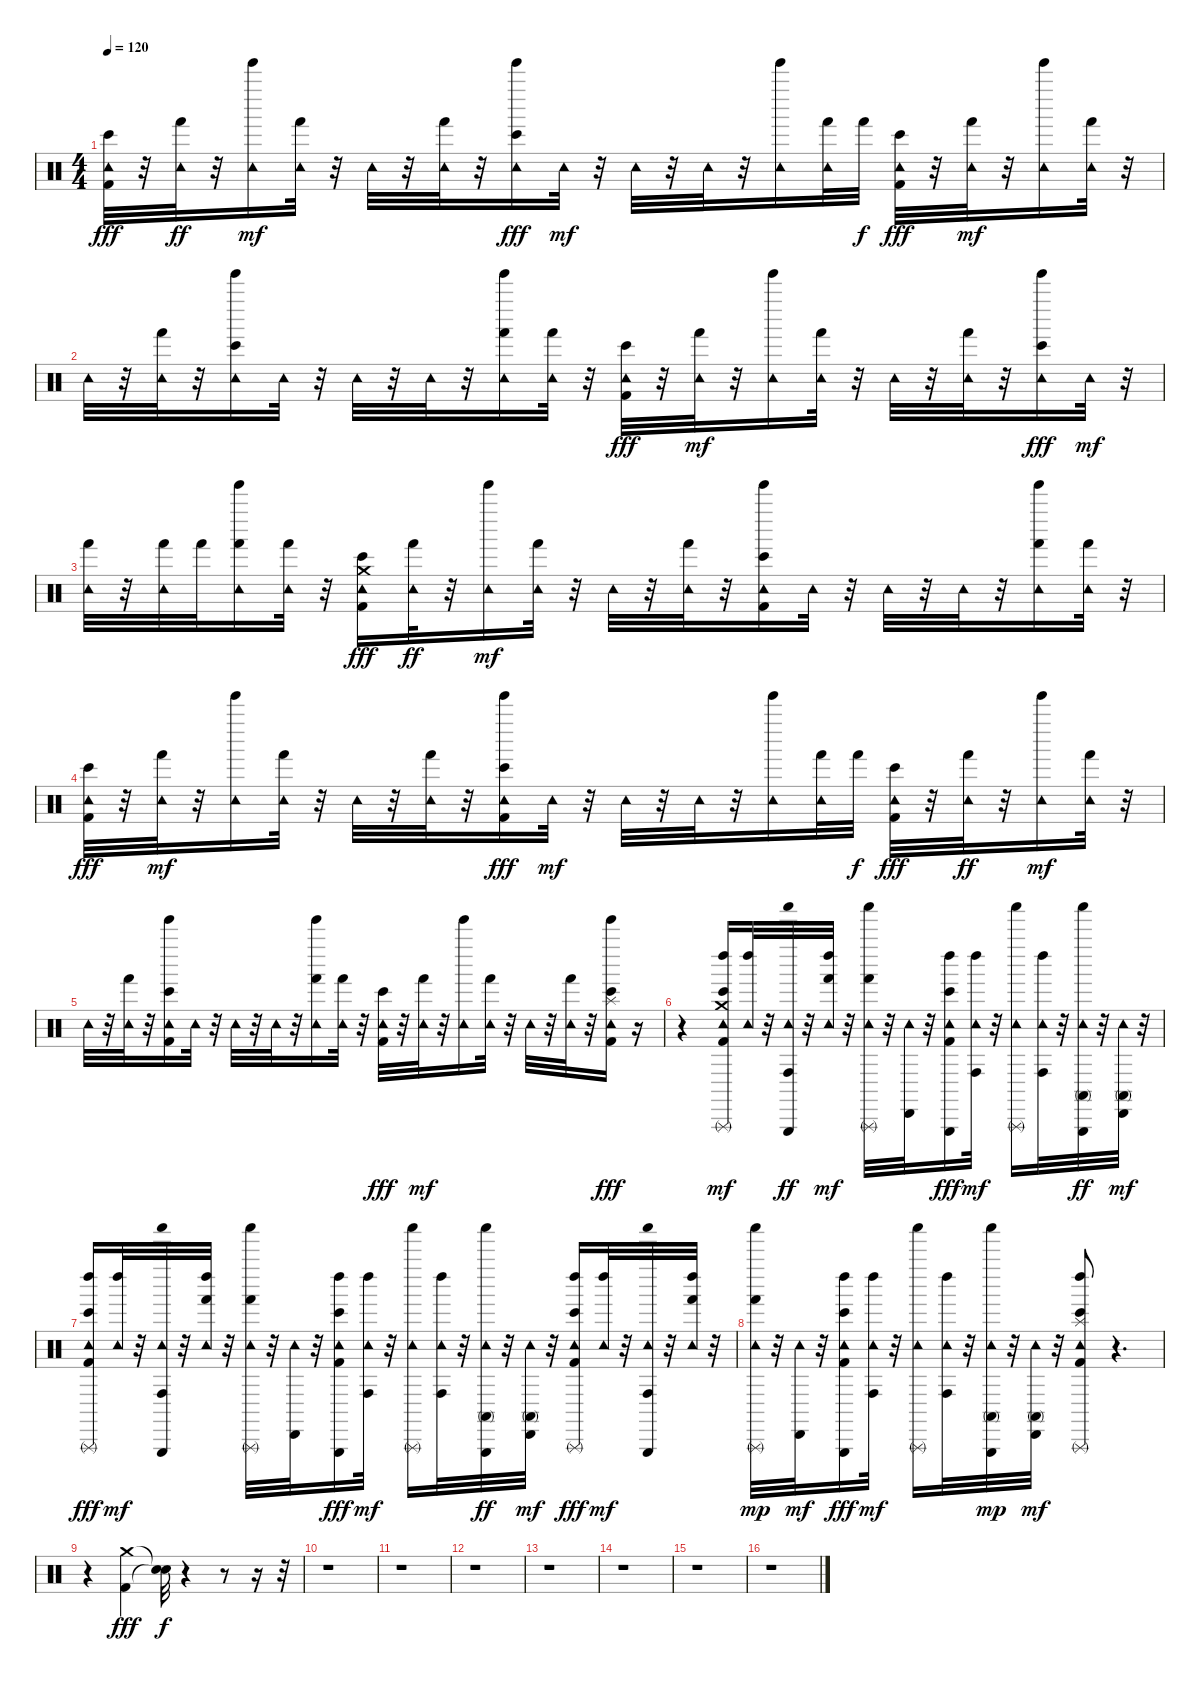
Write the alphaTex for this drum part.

\track "" {instrument percussion}
\staff {score}
\articulation defaults
\ts (4 4)
\tempo 120
\clef neutral
\ks c
("Tambourine (hit)" "Kick (hit) 2" "Bongo High (hit)").32{dy fff} r.32 ("Tambourine (hit)" "Hand (hit)").32{dy ff} r.32 ("Tinkle Bell (hit)" "Tambourine (hit)").16{dy mf} ("Tambourine (hit)" "Hand (hit)").32 r.32 "Tambourine (hit)".32 r.32 ("Tambourine (hit)" "Hand (hit)").32 r.32 ("Tinkle Bell (hit)" "Tambourine (hit)" "Bongo High (hit)").16{dy fff} "Tambourine (hit)".32{dy mf} r.32 "Tambourine (hit)".32 r.32 "Tambourine (hit)".32 r.32 ("Tinkle Bell (hit)" "Tambourine (hit)").16 ("Tambourine (hit)" "Hand (hit)").32 "Hand (hit)".32{dy f} ("Bongo High (hit)" "Kick (hit) 2" "Tambourine (hit)").32{dy fff} r.32 ("Hand (hit)" "Tambourine (hit)").32{dy mf} r.32 ("Tambourine (hit)" "Tinkle Bell (hit)").16 ("Hand (hit)" "Tambourine (hit)").32 r.32 |
"Tambourine (hit)".32 r.32 ("Hand (hit)" "Tambourine (hit)").32 r.32 ("Bongo High (hit)" "Tambourine (hit)" "Tinkle Bell (hit)").16 "Tambourine (hit)".32 r.32 "Tambourine (hit)".32 r.32 "Tambourine (hit)".32 r.32 ("Hand (hit)" "Tambourine (hit)" "Tinkle Bell (hit)").16 ("Hand (hit)" "Tambourine (hit)").32 r.32 ("Bongo High (hit)" "Kick (hit) 2" "Tambourine (hit)").32{dy fff} r.32 ("Hand (hit)" "Tambourine (hit)").32{dy mf} r.32 ("Tinkle Bell (hit)" "Tambourine (hit)").16 ("Hand (hit)" "Tambourine (hit)").32 r.32 "Tambourine (hit)".32 r.32 ("Hand (hit)" "Tambourine (hit)").32 r.32 ("Tinkle Bell (hit)" "Bongo High (hit)" "Tambourine (hit)").16{dy fff} "Tambourine (hit)".32{dy mf} r.32 |
("Hand (hit)" "Tambourine (hit)").32 r.32 ("Hand (hit)" "Tambourine (hit)").32 "Hand (hit)".32 ("Tinkle Bell (hit)" "Hand (hit)" "Tambourine (hit)").16 ("Hand (hit)" "Tambourine (hit)").32 r.32 ("Crash medium (hit)" "Kick (hit) 2" "Tambourine (hit)" "Bongo High (hit)").16{dy fff} ("Tambourine (hit)" "Hand (hit)").32{dy ff} r.32 ("Tambourine (hit)" "Tinkle Bell (hit)").16{dy mf} ("Tambourine (hit)" "Hand (hit)").32 r.32 "Tambourine (hit)".32 r.32 ("Tambourine (hit)" "Hand (hit)").32 r.32 ("Tambourine (hit)" "Bongo High (hit)" "Kick (hit) 2" "Tinkle Bell (hit)").16 "Tambourine (hit)".32 r.32 "Tambourine (hit)".32 r.32 "Tambourine (hit)".32 r.32 ("Tambourine (hit)" "Hand (hit)" "Tinkle Bell (hit)").16 ("Tambourine (hit)" "Hand (hit)").32 r.32 |
("Bongo High (hit)" "Tambourine (hit)" "Kick (hit) 2").32{dy fff} r.32 ("Hand (hit)" "Tambourine (hit)").32{dy mf} r.32 ("Tinkle Bell (hit)" "Tambourine (hit)").16 ("Hand (hit)" "Tambourine (hit)").32 r.32 "Tambourine (hit)".32 r.32 ("Hand (hit)" "Tambourine (hit)").32 r.32 ("Tinkle Bell (hit)" "Bongo High (hit)" "Kick (hit) 2" "Tambourine (hit)").16{dy fff} "Tambourine (hit)".32{dy mf} r.32 "Tambourine (hit)".32 r.32 "Tambourine (hit)".32 r.32 ("Tinkle Bell (hit)" "Tambourine (hit)").16 ("Hand (hit)" "Tambourine (hit)").32 "Hand (hit)".32{dy f} ("Kick (hit) 2" "Tambourine (hit)" "Bongo High (hit)").32{dy fff} r.32 ("Tambourine (hit)" "Hand (hit)").32{dy ff} r.32 ("Tambourine (hit)" "Tinkle Bell (hit)").16{dy mf} ("Tambourine (hit)" "Hand (hit)").32 r.32 |
"Tambourine (hit)".32 r.32 ("Tambourine (hit)" "Hand (hit)").32 r.32 ("Tambourine (hit)" "Bongo High (hit)" "Kick (hit) 2" "Tinkle Bell (hit)").16 "Tambourine (hit)".32 r.32 "Tambourine (hit)".32 r.32 "Tambourine (hit)".32 r.32 ("Tambourine (hit)" "Hand (hit)" "Tinkle Bell (hit)").16 ("Tambourine (hit)" "Hand (hit)").32 r.32 ("Bongo High (hit)" "Tambourine (hit)" "Kick (hit) 2").32{dy fff} r.32 ("Hand (hit)" "Tambourine (hit)").32{dy mf} r.32 ("Tinkle Bell (hit)" "Tambourine (hit)").16 ("Hand (hit)" "Tambourine (hit)").32 r.32 "Tambourine (hit)".32 r.32 ("Hand (hit)" "Tambourine (hit)").32 r.32 ("Tinkle Bell (hit)" "Splash (hit)" "Bongo High (hit)" "Kick (hit) 2" "Tambourine (hit)").16{dy fff} r.16 |
r.4 ("Kick (hit) 2" "Crash medium (hit)" "Bongo High (hit)" "Left Maraca (hit)" "Triangle (rnute)" "Tambourine (hit)").16{dy mf} ("Left Maraca (hit)" "Tambourine (hit)").32 r.32 ("Conga high (hit)" "Shaker (hit)" "Triangle (hit)" "Tambourine (hit)").32{dy ff} r.32 ("Hand (hit)" "Left Maraca (hit)" "Tambourine (hit)").32{dy mf} r.32 ("Hand (hit)" "Shaker (hit)" "Triangle (rnute)" "Tambourine (hit)").32 r.32 ("Cabasa (hit)" "Tambourine (hit)").32 r.32 ("Bongo High (hit)" "Left Maraca (hit)" "Triangle (hit)" "Tambourine (hit)" "Kick (hit) 2").16{dy fff} ("Conga high (hit)" "Left Maraca (hit)" "Tambourine (hit)").32{dy mf} r.32 ("Shaker (hit)" "Triangle (rnute)" "Tambourine (hit)").16 ("Conga high (hit)" "Left Maraca (hit)" "Tambourine (hit)").32 r.32 ("Conga high (mute)" "Shaker (hit)" "Triangle (hit)" "Tambourine (hit)").32{dy ff} r.32 ("Conga high (mute)" "Cabasa (hit)" "Tambourine (hit)").32{dy mf} r.32 |
("Triangle (rnute)" "Tambourine (hit)" "Kick (hit) 2" "Left Maraca (hit)" "Bongo High (hit)").16{dy fff} ("Tambourine (hit)" "Left Maraca (hit)").32{dy mf} r.32 ("Triangle (hit)" "Tambourine (hit)" "Shaker (hit)" "Conga high (hit)").32 r.32 ("Tambourine (hit)" "Left Maraca (hit)" "Hand (hit)").32 r.32 ("Triangle (rnute)" "Tambourine (hit)" "Shaker (hit)" "Hand (hit)").32 r.32 ("Tambourine (hit)" "Cabasa (hit)").32 r.32 ("Triangle (hit)" "Tambourine (hit)" "Left Maraca (hit)" "Bongo High (hit)" "Kick (hit) 2").16{dy fff} ("Tambourine (hit)" "Left Maraca (hit)" "Conga high (hit)").32{dy mf} r.32 ("Triangle (rnute)" "Tambourine (hit)" "Shaker (hit)").16 ("Tambourine (hit)" "Left Maraca (hit)" "Conga high (hit)").32 r.32 ("Triangle (hit)" "Tambourine (hit)" "Shaker (hit)" "Conga high (mute)").32{dy ff} r.32 ("Tambourine (hit)" "Cabasa (hit)" "Conga high (mute)").32{dy mf} r.32 ("Tambourine (hit)" "Bongo High (hit)" "Triangle (rnute)" "Kick (hit) 2" "Left Maraca (hit)").16{dy fff} ("Tambourine (hit)" "Left Maraca (hit)").32{dy mf} r.32 ("Tambourine (hit)" "Conga high (hit)" "Triangle (hit)" "Shaker (hit)").32 r.32 ("Tambourine (hit)" "Hand (hit)" "Left Maraca (hit)").32 r.32 |
("Tambourine (hit)" "Hand (hit)" "Triangle (rnute)" "Shaker (hit)").32{dy mp} r.32 ("Tambourine (hit)" "Cabasa (hit)").32{dy mf} r.32 ("Tambourine (hit)" "Bongo High (hit)" "Triangle (hit)" "Left Maraca (hit)" "Kick (hit) 2").16{dy fff} ("Tambourine (hit)" "Conga high (hit)" "Left Maraca (hit)").32{dy mf} r.32 ("Tambourine (hit)" "Triangle (rnute)" "Shaker (hit)").16 ("Tambourine (hit)" "Conga high (hit)" "Left Maraca (hit)").32 r.32 ("Tambourine (hit)" "Conga high (mute)" "Triangle (hit)" "Shaker (hit)").32{dy mp} r.32 ("Tambourine (hit)" "Conga high (mute)" "Cabasa (hit)").32{dy mf} r.32 ("Triangle (rnute)" "Splash (hit)" "Kick (hit) 2" "Bongo High (hit)" "Left Maraca (hit)" "Tambourine (hit)").8 r.4{d} |
r.4 ("Kick (hit) 2" "Crash medium (hit)").4{dy fff} ("Snare (hit)"{t} "Snare (hit)"{t}).32{dy f} r.4 r.8 r.16 r.32 |
r.1 |
r.1 |
r.1 |
r.1 |
r.1 |
r.1 |
r.1
